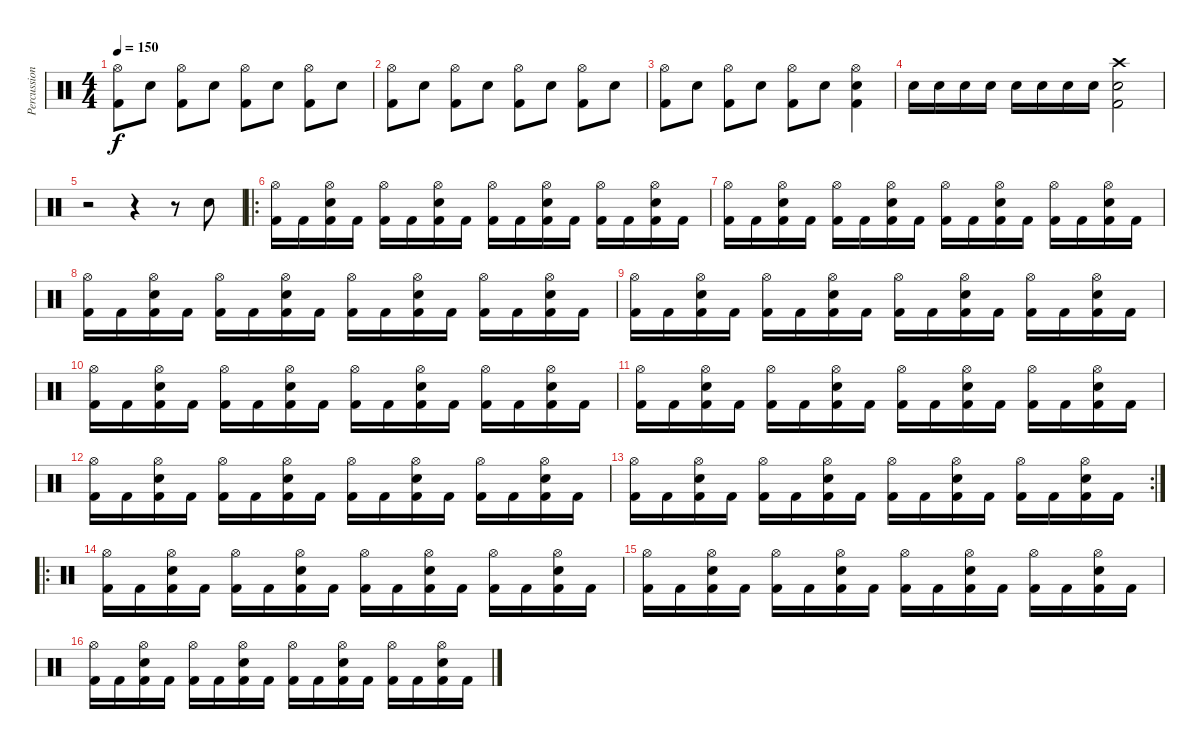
\track ("Percussion" "Percussion") {instrument percussion}
\staff {score}
\articulation defaults
\ts (4 4)
\tempo 150
\clef neutral
\ks c
("Hi-Hat (open)" "Kick (hit) 2").8{dy f} "Snare (hit) 2".8 ("Hi-Hat (open)" "Kick (hit) 2").8 "Snare (hit) 2".8 ("Hi-Hat (open)" "Kick (hit) 2").8 "Snare (hit) 2".8 ("Hi-Hat (open)" "Kick (hit) 2").8 "Snare (hit) 2".8 |
("Hi-Hat (open)" "Kick (hit) 2").8 "Snare (hit) 2".8 ("Hi-Hat (open)" "Kick (hit) 2").8 "Snare (hit) 2".8 ("Hi-Hat (open)" "Kick (hit) 2").8 "Snare (hit) 2".8 ("Hi-Hat (open)" "Kick (hit) 2").8 "Snare (hit) 2".8 |
("Hi-Hat (open)" "Kick (hit) 2").8 "Snare (hit) 2".8 ("Hi-Hat (open)" "Kick (hit) 2").8 "Snare (hit) 2".8 ("Hi-Hat (open)" "Kick (hit) 2").8 "Snare (hit) 2".8 ("Hi-Hat (open)" "Snare (hit) 2" "Kick (hit) 2").4 |
"Snare (hit) 2".16 "Snare (hit) 2".16 "Snare (hit) 2".16 "Snare (hit) 2".16 "Snare (hit) 2".16 "Snare (hit) 2".16 "Snare (hit) 2".16 "Snare (hit) 2".16 ("Crash high (hit)" "Snare (hit) 2" "Kick (hit) 2").2 |
r.2 r.4 r.8 "Snare (hit) 2".8 |
\ro
("Hi-Hat (open)" "Kick (hit) 2").16 "Kick (hit) 2".16 ("Hi-Hat (open)" "Snare (hit) 2" "Kick (hit) 2").16 "Kick (hit) 2".16 ("Hi-Hat (open)" "Kick (hit) 2").16 "Kick (hit) 2".16 ("Hi-Hat (open)" "Snare (hit) 2" "Kick (hit) 2").16 "Kick (hit) 2".16 ("Hi-Hat (open)" "Kick (hit) 2").16 "Kick (hit) 2".16 ("Hi-Hat (open)" "Snare (hit) 2" "Kick (hit) 2").16 "Kick (hit) 2".16 ("Hi-Hat (open)" "Kick (hit) 2").16 "Kick (hit) 2".16 ("Hi-Hat (open)" "Snare (hit) 2" "Kick (hit) 2").16 "Kick (hit) 2".16 |
("Hi-Hat (open)" "Kick (hit) 2").16 "Kick (hit) 2".16 ("Hi-Hat (open)" "Snare (hit) 2" "Kick (hit) 2").16 "Kick (hit) 2".16 ("Hi-Hat (open)" "Kick (hit) 2").16 "Kick (hit) 2".16 ("Hi-Hat (open)" "Snare (hit) 2" "Kick (hit) 2").16 "Kick (hit) 2".16 ("Hi-Hat (open)" "Kick (hit) 2").16 "Kick (hit) 2".16 ("Hi-Hat (open)" "Snare (hit) 2" "Kick (hit) 2").16 "Kick (hit) 2".16 ("Hi-Hat (open)" "Kick (hit) 2").16 "Kick (hit) 2".16 ("Hi-Hat (open)" "Snare (hit) 2" "Kick (hit) 2").16 "Kick (hit) 2".16 |
("Hi-Hat (open)" "Kick (hit) 2").16 "Kick (hit) 2".16 ("Hi-Hat (open)" "Snare (hit) 2" "Kick (hit) 2").16 "Kick (hit) 2".16 ("Hi-Hat (open)" "Kick (hit) 2").16 "Kick (hit) 2".16 ("Hi-Hat (open)" "Snare (hit) 2" "Kick (hit) 2").16 "Kick (hit) 2".16 ("Hi-Hat (open)" "Kick (hit) 2").16 "Kick (hit) 2".16 ("Hi-Hat (open)" "Snare (hit) 2" "Kick (hit) 2").16 "Kick (hit) 2".16 ("Hi-Hat (open)" "Kick (hit) 2").16 "Kick (hit) 2".16 ("Hi-Hat (open)" "Snare (hit) 2" "Kick (hit) 2").16 "Kick (hit) 2".16 |
("Hi-Hat (open)" "Kick (hit) 2").16 "Kick (hit) 2".16 ("Hi-Hat (open)" "Snare (hit) 2" "Kick (hit) 2").16 "Kick (hit) 2".16 ("Hi-Hat (open)" "Kick (hit) 2").16 "Kick (hit) 2".16 ("Hi-Hat (open)" "Snare (hit) 2" "Kick (hit) 2").16 "Kick (hit) 2".16 ("Hi-Hat (open)" "Kick (hit) 2").16 "Kick (hit) 2".16 ("Hi-Hat (open)" "Snare (hit) 2" "Kick (hit) 2").16 "Kick (hit) 2".16 ("Hi-Hat (open)" "Kick (hit) 2").16 "Kick (hit) 2".16 ("Hi-Hat (open)" "Snare (hit) 2" "Kick (hit) 2").16 "Kick (hit) 2".16 |
("Hi-Hat (open)" "Kick (hit) 2").16 "Kick (hit) 2".16 ("Hi-Hat (open)" "Snare (hit) 2" "Kick (hit) 2").16 "Kick (hit) 2".16 ("Hi-Hat (open)" "Kick (hit) 2").16 "Kick (hit) 2".16 ("Hi-Hat (open)" "Snare (hit) 2" "Kick (hit) 2").16 "Kick (hit) 2".16 ("Hi-Hat (open)" "Kick (hit) 2").16 "Kick (hit) 2".16 ("Hi-Hat (open)" "Snare (hit) 2" "Kick (hit) 2").16 "Kick (hit) 2".16 ("Hi-Hat (open)" "Kick (hit) 2").16 "Kick (hit) 2".16 ("Hi-Hat (open)" "Snare (hit) 2" "Kick (hit) 2").16 "Kick (hit) 2".16 |
("Hi-Hat (open)" "Kick (hit) 2").16 "Kick (hit) 2".16 ("Hi-Hat (open)" "Snare (hit) 2" "Kick (hit) 2").16 "Kick (hit) 2".16 ("Hi-Hat (open)" "Kick (hit) 2").16 "Kick (hit) 2".16 ("Hi-Hat (open)" "Snare (hit) 2" "Kick (hit) 2").16 "Kick (hit) 2".16 ("Hi-Hat (open)" "Kick (hit) 2").16 "Kick (hit) 2".16 ("Hi-Hat (open)" "Snare (hit) 2" "Kick (hit) 2").16 "Kick (hit) 2".16 ("Hi-Hat (open)" "Kick (hit) 2").16 "Kick (hit) 2".16 ("Hi-Hat (open)" "Snare (hit) 2" "Kick (hit) 2").16 "Kick (hit) 2".16 |
("Hi-Hat (open)" "Kick (hit) 2").16 "Kick (hit) 2".16 ("Hi-Hat (open)" "Snare (hit) 2" "Kick (hit) 2").16 "Kick (hit) 2".16 ("Hi-Hat (open)" "Kick (hit) 2").16 "Kick (hit) 2".16 ("Hi-Hat (open)" "Snare (hit) 2" "Kick (hit) 2").16 "Kick (hit) 2".16 ("Hi-Hat (open)" "Kick (hit) 2").16 "Kick (hit) 2".16 ("Hi-Hat (open)" "Snare (hit) 2" "Kick (hit) 2").16 "Kick (hit) 2".16 ("Hi-Hat (open)" "Kick (hit) 2").16 "Kick (hit) 2".16 ("Hi-Hat (open)" "Snare (hit) 2" "Kick (hit) 2").16 "Kick (hit) 2".16 |
\rc 2
("Hi-Hat (open)" "Kick (hit) 2").16 "Kick (hit) 2".16 ("Hi-Hat (open)" "Snare (hit) 2" "Kick (hit) 2").16 "Kick (hit) 2".16 ("Hi-Hat (open)" "Kick (hit) 2").16 "Kick (hit) 2".16 ("Hi-Hat (open)" "Snare (hit) 2" "Kick (hit) 2").16 "Kick (hit) 2".16 ("Hi-Hat (open)" "Kick (hit) 2").16 "Kick (hit) 2".16 ("Hi-Hat (open)" "Snare (hit) 2" "Kick (hit) 2").16 "Kick (hit) 2".16 ("Hi-Hat (open)" "Kick (hit) 2").16 "Kick (hit) 2".16 ("Hi-Hat (open)" "Snare (hit) 2" "Kick (hit) 2").16 "Kick (hit) 2".16 |
\ro
("Hi-Hat (open)" "Kick (hit) 2").16 "Kick (hit) 2".16 ("Hi-Hat (open)" "Snare (hit) 2" "Kick (hit) 2").16 "Kick (hit) 2".16 ("Hi-Hat (open)" "Kick (hit) 2").16 "Kick (hit) 2".16 ("Hi-Hat (open)" "Snare (hit) 2" "Kick (hit) 2").16 "Kick (hit) 2".16 ("Hi-Hat (open)" "Kick (hit) 2").16 "Kick (hit) 2".16 ("Hi-Hat (open)" "Snare (hit) 2" "Kick (hit) 2").16 "Kick (hit) 2".16 ("Hi-Hat (open)" "Kick (hit) 2").16 "Kick (hit) 2".16 ("Hi-Hat (open)" "Snare (hit) 2" "Kick (hit) 2").16 "Kick (hit) 2".16 |
("Hi-Hat (open)" "Kick (hit) 2").16 "Kick (hit) 2".16 ("Hi-Hat (open)" "Snare (hit) 2" "Kick (hit) 2").16 "Kick (hit) 2".16 ("Hi-Hat (open)" "Kick (hit) 2").16 "Kick (hit) 2".16 ("Hi-Hat (open)" "Snare (hit) 2" "Kick (hit) 2").16 "Kick (hit) 2".16 ("Hi-Hat (open)" "Kick (hit) 2").16 "Kick (hit) 2".16 ("Hi-Hat (open)" "Snare (hit) 2" "Kick (hit) 2").16 "Kick (hit) 2".16 ("Hi-Hat (open)" "Kick (hit) 2").16 "Kick (hit) 2".16 ("Hi-Hat (open)" "Snare (hit) 2" "Kick (hit) 2").16 "Kick (hit) 2".16 |
("Hi-Hat (open)" "Kick (hit) 2").16 "Kick (hit) 2".16 ("Hi-Hat (open)" "Snare (hit) 2" "Kick (hit) 2").16 "Kick (hit) 2".16 ("Hi-Hat (open)" "Kick (hit) 2").16 "Kick (hit) 2".16 ("Hi-Hat (open)" "Snare (hit) 2" "Kick (hit) 2").16 "Kick (hit) 2".16 ("Hi-Hat (open)" "Kick (hit) 2").16 "Kick (hit) 2".16 ("Hi-Hat (open)" "Snare (hit) 2" "Kick (hit) 2").16 "Kick (hit) 2".16 ("Hi-Hat (open)" "Kick (hit) 2").16 "Kick (hit) 2".16 ("Hi-Hat (open)" "Snare (hit) 2" "Kick (hit) 2").16 "Kick (hit) 2".16
